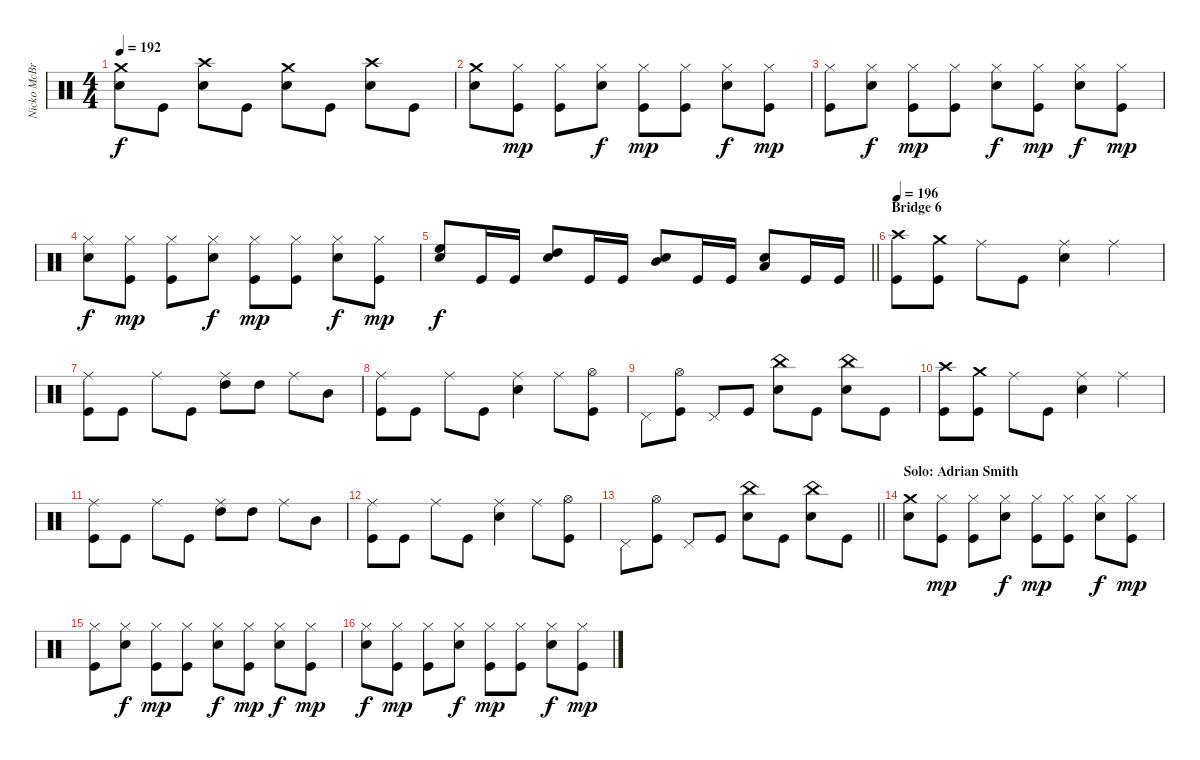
\track ("Nicko McBrain" "Nicko McBr") {instrument percussion}
\staff {score}
\articulation defaults
\ts (4 4)
\tempo 192
\clef neutral
\ks c
("Crash medium (hit)" "Electric Snare (hit)").8{dy f} "Kick (hit)".8 ("Crash high (hit)" "Electric Snare (hit)").8 "Kick (hit)".8 ("Crash medium (hit)" "Electric Snare (hit)").8 "Kick (hit)".8 ("Crash high (hit)" "Electric Snare (hit)").8 "Kick (hit)".8 |
("Crash medium (hit)" "Electric Snare (hit)").8 ("Hi-Hat (closed)" "Kick (hit)").8{dy mp} ("Hi-Hat (closed)" "Kick (hit)").8 ("Hi-Hat (closed)" "Electric Snare (hit)").8{dy f} ("Hi-Hat (closed)" "Kick (hit)").8{dy mp} ("Hi-Hat (closed)" "Kick (hit)").8 ("Hi-Hat (closed)" "Electric Snare (hit)").8{dy f} ("Hi-Hat (closed)" "Kick (hit)").8{dy mp} |
("Hi-Hat (closed)" "Kick (hit)").8 ("Hi-Hat (closed)" "Electric Snare (hit)").8{dy f} ("Hi-Hat (closed)" "Kick (hit)").8{dy mp} ("Hi-Hat (closed)" "Kick (hit)").8 ("Hi-Hat (closed)" "Electric Snare (hit)").8{dy f} ("Hi-Hat (closed)" "Kick (hit)").8{dy mp} ("Hi-Hat (closed)" "Electric Snare (hit)").8{dy f} ("Hi-Hat (closed)" "Kick (hit)").8{dy mp} |
("Hi-Hat (closed)" "Electric Snare (hit)").8{dy f} ("Hi-Hat (closed)" "Kick (hit)").8{dy mp} ("Hi-Hat (closed)" "Kick (hit)").8 ("Hi-Hat (closed)" "Electric Snare (hit)").8{dy f} ("Hi-Hat (closed)" "Kick (hit)").8{dy mp} ("Hi-Hat (closed)" "Kick (hit)").8 ("Hi-Hat (closed)" "Electric Snare (hit)").8{dy f} ("Hi-Hat (closed)" "Kick (hit)").8{dy mp} |
\barLineRight lightlight
("High Floor Tom (hit)" "Electric Snare (hit)").8{dy f} "Kick (hit)".16 "Kick (hit)".16 ("High Tom (hit)" "Electric Snare (hit)").8 "Kick (hit)".16 "Kick (hit)".16 ("Electric Snare (hit)" "Mid Tom (hit)").8 "Kick (hit)".16 "Kick (hit)".16 ("Electric Snare (hit)" "Low Tom (hit)").8 "Kick (hit)".16 "Kick (hit)".16 |
\section ("" "Bridge 6")
\tempo 196
("Crash high (hit)" "Kick (hit)").8 ("Crash medium (hit)" "Kick (hit)").8 "Ride (middle)".8 "Kick (hit)".8 ("Ride (middle)" "Electric Snare (hit)").4 "Ride (middle)".4 |
("Ride (middle)" "Kick (hit)").8 "Kick (hit)".8 "Ride (middle)".8 "Kick (hit)".8 ("Ride (middle)" "High Tom (hit)").8 "High Tom (hit)".8 "Ride (middle)".8 "Mid Tom (hit)".8 |
("Ride (middle)" "Kick (hit)").8 "Kick (hit)".8 "Ride (middle)".8 "Kick (hit)".8 ("Ride (middle)" "Electric Snare (hit)").4 "Ride (middle)".8 ("Hi-Hat (open)" "Kick (hit)").8 |
"Pedal Hi-Hat (hit)".8 ("Hi-Hat (open)" "Kick (hit)").8 "Pedal Hi-Hat (hit)".8 "Kick (hit)".8 ("China (hit)" "Electric Snare (hit)").8 "Kick (hit)".8 ("China (hit)" "Electric Snare (hit)").8 "Kick (hit)".8 |
("Crash high (hit)" "Kick (hit)").8 ("Crash medium (hit)" "Kick (hit)").8 "Ride (middle)".8 "Kick (hit)".8 ("Ride (middle)" "Electric Snare (hit)").4 "Ride (middle)".4 |
("Ride (middle)" "Kick (hit)").8 "Kick (hit)".8 "Ride (middle)".8 "Kick (hit)".8 ("Ride (middle)" "High Tom (hit)").8 "High Tom (hit)".8 "Ride (middle)".8 "Mid Tom (hit)".8 |
("Ride (middle)" "Kick (hit)").8 "Kick (hit)".8 "Ride (middle)".8 "Kick (hit)".8 ("Ride (middle)" "Electric Snare (hit)").4 "Ride (middle)".8 ("Hi-Hat (open)" "Kick (hit)").8 |
\barLineRight lightlight "Pedal Hi-Hat (hit)".8
("Hi-Hat (open)" "Kick (hit)").8 "Pedal Hi-Hat (hit)".8 "Kick (hit)".8 ("China (hit)" "Electric Snare (hit)").8 "Kick (hit)".8 ("China (hit)" "Electric Snare (hit)").8 "Kick (hit)".8 |
\section ("" "Solo: Adrian Smith")
("Crash medium (hit)" "Electric Snare (hit)").8 ("Hi-Hat (closed)" "Kick (hit)").8{dy mp} ("Hi-Hat (closed)" "Kick (hit)").8 ("Hi-Hat (closed)" "Electric Snare (hit)").8{dy f} ("Hi-Hat (closed)" "Kick (hit)").8{dy mp} ("Hi-Hat (closed)" "Kick (hit)").8 ("Hi-Hat (closed)" "Electric Snare (hit)").8{dy f} ("Hi-Hat (closed)" "Kick (hit)").8{dy mp} |
("Hi-Hat (closed)" "Kick (hit)").8 ("Hi-Hat (closed)" "Electric Snare (hit)").8{dy f} ("Hi-Hat (closed)" "Kick (hit)").8{dy mp} ("Hi-Hat (closed)" "Kick (hit)").8 ("Hi-Hat (closed)" "Electric Snare (hit)").8{dy f} ("Hi-Hat (closed)" "Kick (hit)").8{dy mp} ("Hi-Hat (closed)" "Electric Snare (hit)").8{dy f} ("Hi-Hat (closed)" "Kick (hit)").8{dy mp} |
("Hi-Hat (closed)" "Electric Snare (hit)").8{dy f} ("Hi-Hat (closed)" "Kick (hit)").8{dy mp} ("Hi-Hat (closed)" "Kick (hit)").8 ("Hi-Hat (closed)" "Electric Snare (hit)").8{dy f} ("Hi-Hat (closed)" "Kick (hit)").8{dy mp} ("Hi-Hat (closed)" "Kick (hit)").8 ("Hi-Hat (closed)" "Electric Snare (hit)").8{dy f} ("Hi-Hat (closed)" "Kick (hit)").8{dy mp}
